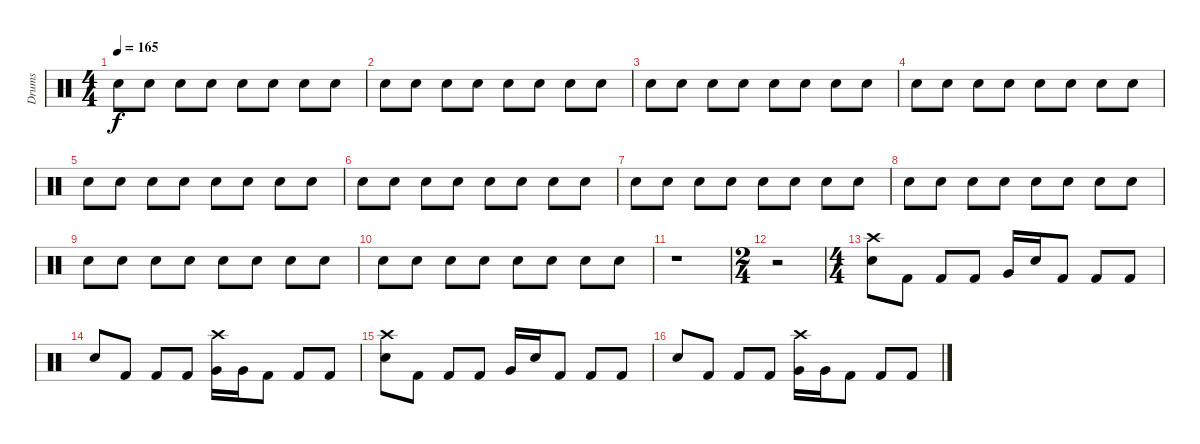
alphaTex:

\track ("Drums" "Drums") {instrument percussion}
\staff {score}
\articulation defaults
\ts (4 4)
\tempo 165
\clef neutral
\ks c "Snare (hit) 2".8{dy f} "Snare (hit) 2".8 "Snare (hit) 2".8 "Snare (hit) 2".8 "Snare (hit) 2".8 "Snare (hit) 2".8 "Snare (hit) 2".8 "Snare (hit) 2".8
|
"Snare (hit) 2".8 "Snare (hit) 2".8 "Snare (hit) 2".8 "Snare (hit) 2".8 "Snare (hit) 2".8 "Snare (hit) 2".8 "Snare (hit) 2".8 "Snare (hit) 2".8 |
"Snare (hit) 2".8 "Snare (hit) 2".8 "Snare (hit) 2".8 "Snare (hit) 2".8 "Snare (hit) 2".8 "Snare (hit) 2".8 "Snare (hit) 2".8 "Snare (hit) 2".8 |
"Snare (hit) 2".8 "Snare (hit) 2".8 "Snare (hit) 2".8 "Snare (hit) 2".8 "Snare (hit) 2".8 "Snare (hit) 2".8 "Snare (hit) 2".8 "Snare (hit) 2".8 |
"Snare (hit) 2".8 "Snare (hit) 2".8 "Snare (hit) 2".8 "Snare (hit) 2".8 "Snare (hit) 2".8 "Snare (hit) 2".8 "Snare (hit) 2".8 "Snare (hit) 2".8 |
"Snare (hit) 2".8 "Snare (hit) 2".8 "Snare (hit) 2".8 "Snare (hit) 2".8 "Snare (hit) 2".8 "Snare (hit) 2".8 "Snare (hit) 2".8 "Snare (hit) 2".8 |
"Snare (hit) 2".8 "Snare (hit) 2".8 "Snare (hit) 2".8 "Snare (hit) 2".8 "Snare (hit) 2".8 "Snare (hit) 2".8 "Snare (hit) 2".8 "Snare (hit) 2".8 |
"Snare (hit) 2".8 "Snare (hit) 2".8 "Snare (hit) 2".8 "Snare (hit) 2".8 "Snare (hit) 2".8 "Snare (hit) 2".8 "Snare (hit) 2".8 "Snare (hit) 2".8 |
"Snare (hit) 2".8 "Snare (hit) 2".8 "Snare (hit) 2".8 "Snare (hit) 2".8 "Snare (hit) 2".8 "Snare (hit) 2".8 "Snare (hit) 2".8 "Snare (hit) 2".8 |
"Snare (hit) 2".8 "Snare (hit) 2".8 "Snare (hit) 2".8 "Snare (hit) 2".8 "Snare (hit) 2".8 "Snare (hit) 2".8 "Snare (hit) 2".8 "Snare (hit) 2".8 |
r.1 |
\ts (2 4)
r.2 |
\ts (4 4)
("Snare (hit) 2" "Crash high (hit)").8 "Kick (hit) 2".8 "Kick (hit) 2".8 "Kick (hit) 2".8 "Very Low Tom (hit)".16 "Snare (hit) 2".16 "Kick (hit) 2".8 "Kick (hit) 2".8 "Kick (hit) 2".8 |
"Snare (hit) 2".8 "Kick (hit) 2".8 "Kick (hit) 2".8 "Kick (hit) 2".8 ("Very Low Tom (hit)" "Crash high (hit)").16 "Very Low Tom (hit)".16 "Kick (hit) 2".8 "Kick (hit) 2".8 "Kick (hit) 2".8 |
("Snare (hit) 2" "Crash high (hit)").8 "Kick (hit) 2".8 "Kick (hit) 2".8 "Kick (hit) 2".8 "Very Low Tom (hit)".16 "Snare (hit) 2".16 "Kick (hit) 2".8 "Kick (hit) 2".8 "Kick (hit) 2".8 |
"Snare (hit) 2".8 "Kick (hit) 2".8 "Kick (hit) 2".8 "Kick (hit) 2".8 ("Very Low Tom (hit)" "Crash high (hit)").16 "Very Low Tom (hit)".16 "Kick (hit) 2".8 "Kick (hit) 2".8 "Kick (hit) 2".8
